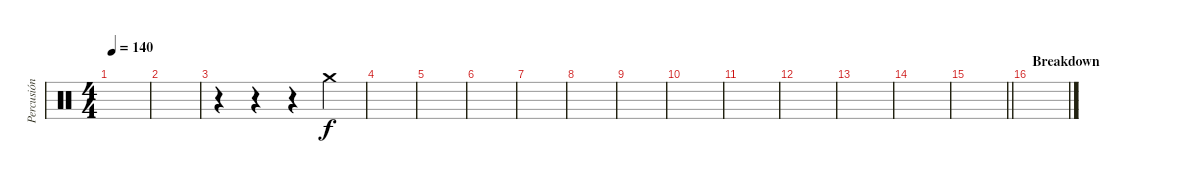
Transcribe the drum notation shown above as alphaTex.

\track ("Percusión" "Percusión") {instrument percussion}
\staff {score}
\articulation defaults
\ts (4 4)
\tempo 140
\clef neutral
\ks c
|
|
r.4 r.4 r.4 "Crash medium (hit)".4 |
|
|
|
|
|
|
|
|
|
|
|
\barLineRight lightlight
|
\section ("" "Breakdown")
